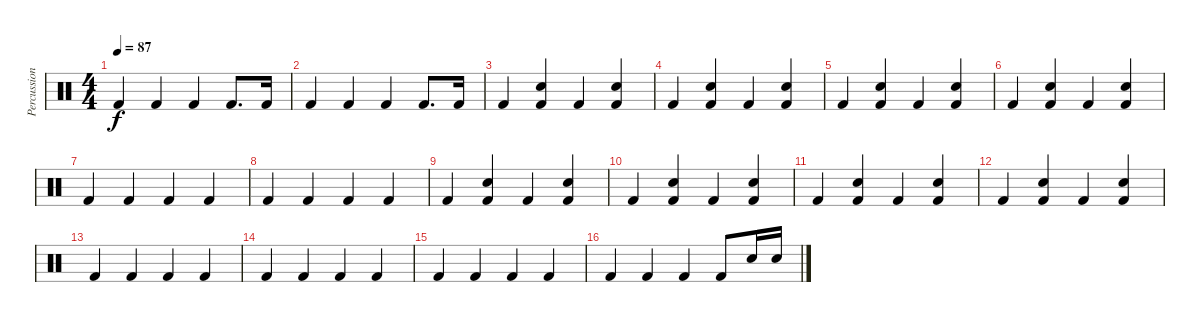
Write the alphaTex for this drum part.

\track ("Percussion" "Percussion") {instrument percussion}
\staff {score}
\articulation defaults
\ts (4 4)
\tempo 87
\clef neutral
\ks c "Kick (hit) 2".4{dy f} "Kick (hit) 2".4 "Kick (hit) 2".4 "Kick (hit) 2".8{d} "Kick (hit) 2".16
|
"Kick (hit) 2".4 "Kick (hit) 2".4 "Kick (hit) 2".4 "Kick (hit) 2".8{d} "Kick (hit) 2".16 |
"Kick (hit) 2".4 ("Kick (hit) 2" "Electric Snare (hit)").4 "Kick (hit) 2".4 ("Kick (hit) 2" "Electric Snare (hit)").4 |
"Kick (hit) 2".4 ("Kick (hit) 2" "Electric Snare (hit)").4 "Kick (hit) 2".4 ("Kick (hit) 2" "Electric Snare (hit)").4 |
"Kick (hit) 2".4 ("Kick (hit) 2" "Electric Snare (hit)").4 "Kick (hit) 2".4 ("Kick (hit) 2" "Electric Snare (hit)").4 |
"Kick (hit) 2".4 ("Kick (hit) 2" "Electric Snare (hit)").4 "Kick (hit) 2".4 ("Kick (hit) 2" "Electric Snare (hit)").4 |
"Kick (hit) 2".4 "Kick (hit) 2".4 "Kick (hit) 2".4 "Kick (hit) 2".4 |
"Kick (hit) 2".4 "Kick (hit) 2".4 "Kick (hit) 2".4 "Kick (hit) 2".4 |
"Kick (hit) 2".4 ("Kick (hit) 2" "Electric Snare (hit)").4 "Kick (hit) 2".4 ("Kick (hit) 2" "Electric Snare (hit)").4 |
"Kick (hit) 2".4 ("Kick (hit) 2" "Electric Snare (hit)").4 "Kick (hit) 2".4 ("Kick (hit) 2" "Electric Snare (hit)").4 |
"Kick (hit) 2".4 ("Kick (hit) 2" "Electric Snare (hit)").4 "Kick (hit) 2".4 ("Kick (hit) 2" "Electric Snare (hit)").4 |
"Kick (hit) 2".4 ("Kick (hit) 2" "Electric Snare (hit)").4 "Kick (hit) 2".4 ("Kick (hit) 2" "Electric Snare (hit)").4 |
"Kick (hit) 2".4 "Kick (hit) 2".4 "Kick (hit) 2".4 "Kick (hit) 2".4 |
"Kick (hit) 2".4 "Kick (hit) 2".4 "Kick (hit) 2".4 "Kick (hit) 2".4 |
"Kick (hit) 2".4 "Kick (hit) 2".4 "Kick (hit) 2".4 "Kick (hit) 2".4 |
"Kick (hit) 2".4 "Kick (hit) 2".4 "Kick (hit) 2".4 "Kick (hit) 2".8 "Electric Snare (hit)".16 "Electric Snare (hit)".16
